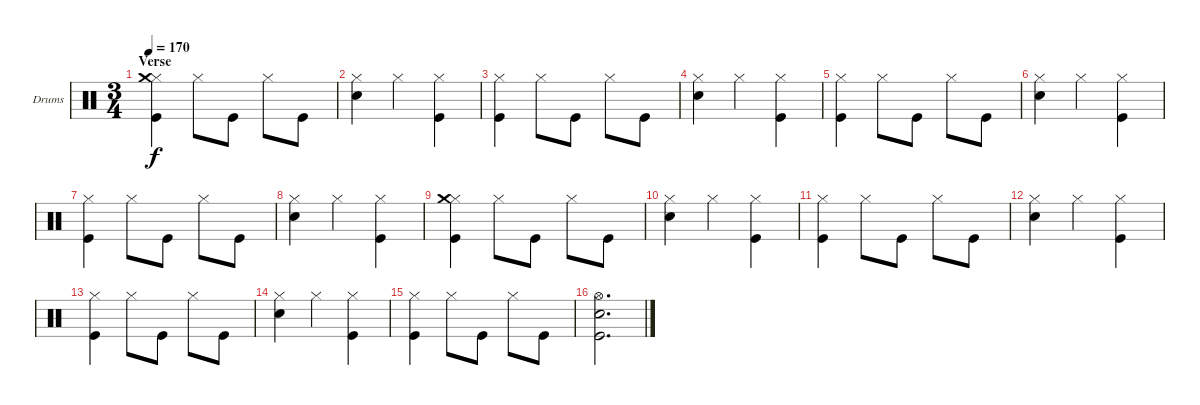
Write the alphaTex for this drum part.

\defaultSystemsLayout 4
\bracketExtendMode groupsimilarinstruments
\firstSystemTrackNameOrientation horizontal
\otherSystemsTrackNameOrientation horizontal
\track ("Drums" "Drums") {instrument percussion}
\staff {score}
\articulation defaults
\ts (3 4)
\section ("" "Verse")
\tempo 170
\clef neutral
\ks c
("Kick (hit)" "Hi-Hat (closed)" "Crash medium (hit)").4{dy f} "Hi-Hat (closed)".8 "Kick (hit)".8 "Hi-Hat (closed)".8 "Kick (hit)".8 |
("Snare (hit) 2" "Hi-Hat (closed)").4 "Hi-Hat (closed)".4 ("Kick (hit)" "Hi-Hat (closed)").4 |
("Kick (hit)" "Hi-Hat (closed)").4 "Hi-Hat (closed)".8 "Kick (hit)".8 "Hi-Hat (closed)".8 "Kick (hit)".8 |
("Snare (hit) 2" "Hi-Hat (closed)").4 "Hi-Hat (closed)".4 ("Kick (hit)" "Hi-Hat (closed)").4 |
("Kick (hit)" "Hi-Hat (closed)").4 "Hi-Hat (closed)".8 "Kick (hit)".8 "Hi-Hat (closed)".8 "Kick (hit)".8 |
("Snare (hit) 2" "Hi-Hat (closed)").4 "Hi-Hat (closed)".4 ("Kick (hit)" "Hi-Hat (closed)").4 |
("Kick (hit)" "Hi-Hat (closed)").4 "Hi-Hat (closed)".8 "Kick (hit)".8 "Hi-Hat (closed)".8 "Kick (hit)".8 |
("Snare (hit) 2" "Hi-Hat (closed)").4 "Hi-Hat (closed)".4 ("Kick (hit)" "Hi-Hat (closed)").4 |
("Kick (hit)" "Hi-Hat (closed)" "Crash medium (hit)").4 "Hi-Hat (closed)".8 "Kick (hit)".8 "Hi-Hat (closed)".8 "Kick (hit)".8 |
("Snare (hit) 2" "Hi-Hat (closed)").4 "Hi-Hat (closed)".4 ("Kick (hit)" "Hi-Hat (closed)").4 |
("Kick (hit)" "Hi-Hat (closed)").4 "Hi-Hat (closed)".8 "Kick (hit)".8 "Hi-Hat (closed)".8 "Kick (hit)".8 |
("Snare (hit) 2" "Hi-Hat (closed)").4 "Hi-Hat (closed)".4 ("Kick (hit)" "Hi-Hat (closed)").4 |
("Kick (hit)" "Hi-Hat (closed)").4 "Hi-Hat (closed)".8 "Kick (hit)".8 "Hi-Hat (closed)".8 "Kick (hit)".8 |
("Snare (hit) 2" "Hi-Hat (closed)").4 "Hi-Hat (closed)".4 ("Kick (hit)" "Hi-Hat (closed)").4 |
("Kick (hit)" "Hi-Hat (closed)").4 "Hi-Hat (closed)".8 "Kick (hit)".8 "Hi-Hat (closed)".8 "Kick (hit)".8 |
("Snare (hit) 2" "Hi-Hat (open)" "Kick (hit)").2{d}
